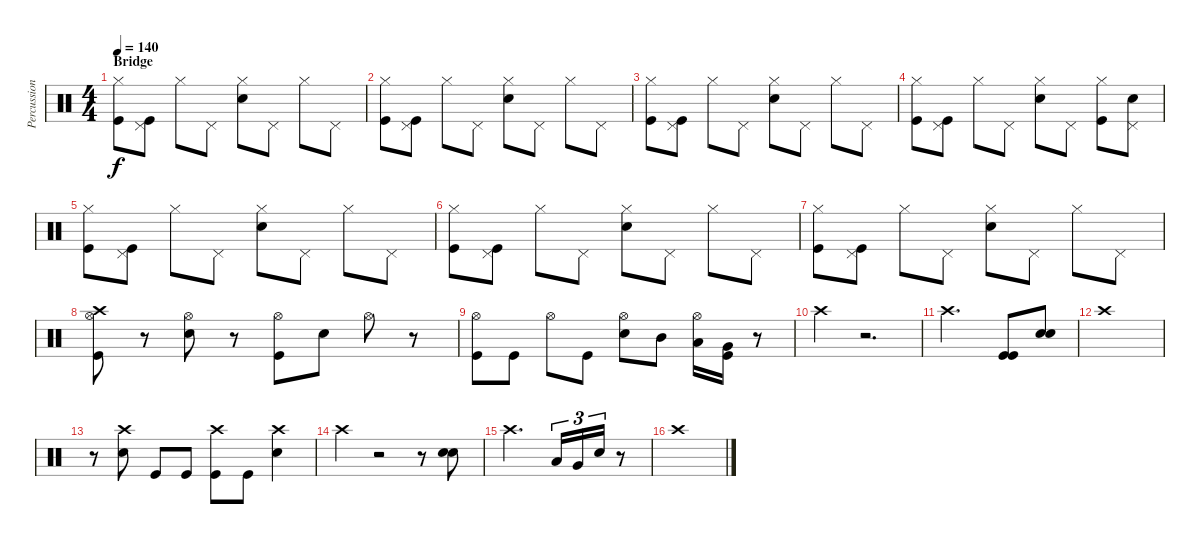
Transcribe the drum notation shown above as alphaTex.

\track ("Percussioni" "Percussion") {instrument percussion}
\staff {score}
\articulation defaults
\ts (4 4)
\section ("" "Bridge")
\tempo 140
\clef neutral
\ks c
("Hi-Hat (closed)" "Kick (hit)").8{dy f} ("Pedal Hi-Hat (hit)" "Kick (hit)").8 "Hi-Hat (closed)".8 "Pedal Hi-Hat (hit)".8 ("Hi-Hat (closed)" "Snare (hit) 2").8 "Pedal Hi-Hat (hit)".8 "Hi-Hat (closed)".8 "Pedal Hi-Hat (hit)".8 |
("Hi-Hat (closed)" "Kick (hit)").8 ("Pedal Hi-Hat (hit)" "Kick (hit)").8 "Hi-Hat (closed)".8 "Pedal Hi-Hat (hit)".8 ("Hi-Hat (closed)" "Snare (hit) 2").8 "Pedal Hi-Hat (hit)".8 "Hi-Hat (closed)".8 "Pedal Hi-Hat (hit)".8 |
("Hi-Hat (closed)" "Kick (hit)").8 ("Pedal Hi-Hat (hit)" "Kick (hit)").8 "Hi-Hat (closed)".8 "Pedal Hi-Hat (hit)".8 ("Hi-Hat (closed)" "Snare (hit) 2").8 "Pedal Hi-Hat (hit)".8 "Hi-Hat (closed)".8 "Pedal Hi-Hat (hit)".8 |
("Hi-Hat (closed)" "Kick (hit)").8 ("Pedal Hi-Hat (hit)" "Kick (hit)").8 "Hi-Hat (closed)".8 "Pedal Hi-Hat (hit)".8 ("Hi-Hat (closed)" "Snare (hit) 2").8 "Pedal Hi-Hat (hit)".8 ("Hi-Hat (closed)" "Kick (hit)").8 ("Pedal Hi-Hat (hit)" "Snare (hit) 2").8 |
("Hi-Hat (closed)" "Kick (hit)").8 ("Pedal Hi-Hat (hit)" "Kick (hit)").8 "Hi-Hat (closed)".8 "Pedal Hi-Hat (hit)".8 ("Hi-Hat (closed)" "Snare (hit) 2").8 "Pedal Hi-Hat (hit)".8 "Hi-Hat (closed)".8 "Pedal Hi-Hat (hit)".8 |
("Hi-Hat (closed)" "Kick (hit)").8 ("Pedal Hi-Hat (hit)" "Kick (hit)").8 "Hi-Hat (closed)".8 "Pedal Hi-Hat (hit)".8 ("Hi-Hat (closed)" "Snare (hit) 2").8 "Pedal Hi-Hat (hit)".8 "Hi-Hat (closed)".8 "Pedal Hi-Hat (hit)".8 |
("Hi-Hat (closed)" "Kick (hit)").8 ("Pedal Hi-Hat (hit)" "Kick (hit)").8 "Hi-Hat (closed)".8 "Pedal Hi-Hat (hit)".8 ("Hi-Hat (closed)" "Snare (hit) 2").8 "Pedal Hi-Hat (hit)".8 "Hi-Hat (closed)".8 "Pedal Hi-Hat (hit)".8 |
("Hi-Hat (open)" "Crash high (hit)" "Kick (hit)").8 r.8 ("Hi-Hat (open)" "Snare (hit) 2").8 r.8 ("Hi-Hat (open)" "Kick (hit)").8 "Snare (hit) 2".8 "Hi-Hat (open)".8 r.8 |
("Hi-Hat (open)" "Kick (hit)").8 "Kick (hit)".8 "Hi-Hat (open)".8 "Kick (hit)".8 ("Hi-Hat (open)" "Snare (hit) 2").8 "Mid Tom (hit)".8 ("Hi-Hat (open)" "Low Tom (hit)").16 ("Very Low Tom (hit)" "Kick (hit)").16 r.8 |
"Crash high (hit)".4 r.2{d} |
"Crash high (hit)".2{d} ("Kick (hit)" "Kick (hit)").8 ("Snare (hit) 2" "Snare (hit) 2").8 |
"Crash high (hit)".1 |
r.8 ("Crash high (hit)" "Snare (hit) 2").8 "Kick (hit)".8 "Kick (hit)".8 ("Crash high (hit)" "Kick (hit)").8 "Kick (hit)".8 ("Crash high (hit)" "Snare (hit) 2").4 |
"Crash high (hit)".4 r.2 r.8 ("Snare (hit) 2" "Snare (hit) 2").8 |
"Crash high (hit)".2{d} "Low Tom (hit)".16{tu (3 2)} "Very Low Tom (hit)".16{tu (3 2)} "Snare (hit) 2".16{tu (3 2)} r.8 |
"Crash high (hit)".1
